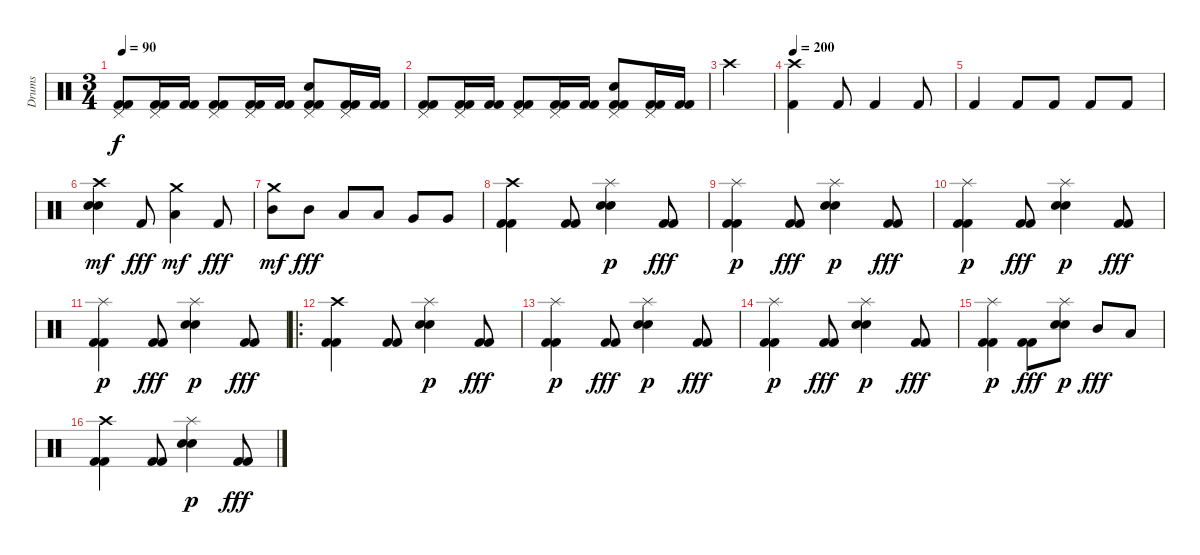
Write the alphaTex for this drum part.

\track ("Drums" "Drums") {instrument percussion bank 41}
\staff
\articulation defaults
\ts (3 4)
\tempo 90
\clef neutral
\ks c
("Kick (hit) 2" "Kick (hit) 2" "Pedal Hi-Hat (hit)").8{dy f} ("Kick (hit) 2" "Kick (hit) 2" "Pedal Hi-Hat (hit)").16 ("Kick (hit) 2" "Kick (hit) 2").16 ("Kick (hit) 2" "Kick (hit) 2" "Pedal Hi-Hat (hit)").8 ("Kick (hit) 2" "Kick (hit) 2" "Pedal Hi-Hat (hit)").16 ("Kick (hit) 2" "Kick (hit) 2").16 ("Kick (hit) 2" "Kick (hit) 2" "Snare (hit) 2" "Pedal Hi-Hat (hit)").8 ("Kick (hit) 2" "Kick (hit) 2" "Pedal Hi-Hat (hit)").16 ("Kick (hit) 2" "Kick (hit) 2").16 |
("Kick (hit) 2" "Kick (hit) 2" "Pedal Hi-Hat (hit)").8 ("Kick (hit) 2" "Kick (hit) 2" "Pedal Hi-Hat (hit)").16 ("Kick (hit) 2" "Kick (hit) 2").16 ("Kick (hit) 2" "Kick (hit) 2" "Pedal Hi-Hat (hit)").8 ("Kick (hit) 2" "Kick (hit) 2" "Pedal Hi-Hat (hit)").16 ("Kick (hit) 2" "Kick (hit) 2").16 ("Kick (hit) 2" "Kick (hit) 2" "Snare (hit) 2" "Pedal Hi-Hat (hit)").8 ("Kick (hit) 2" "Kick (hit) 2" "Pedal Hi-Hat (hit)").16 ("Kick (hit) 2" "Kick (hit) 2").16 |
"Crash high (hit)".4 |
\tempo 200
("Kick (hit) 2" "Crash high (hit)").4 "Kick (hit) 2".8 "Kick (hit) 2".4 "Kick (hit) 2".8 |
"Kick (hit) 2".4 "Kick (hit) 2".8 "Kick (hit) 2".8 "Kick (hit) 2".8 "Kick (hit) 2".8 |
("Snare (hit) 2" "Electric Snare (hit)" "Crash high (hit)").4{dy mf} "Kick (hit) 2".8{dy fff} ("Low Tom (hit)" "Crash medium (hit)").4{dy mf} "Kick (hit) 2".8{dy fff} |
("Mid Tom (hit)" "Crash medium (hit)").8{dy mf} "Mid Tom (hit)".8{dy fff} "Low Tom (hit)".8 "Low Tom (hit)".8 "Very Low Tom (hit)".8 "Very Low Tom (hit)".8 |
("Kick (hit) 2" "Kick (hit) 2" "Crash high (hit)").4 ("Kick (hit) 2" "Kick (hit) 2").8 ("Snare (hit) 2" "Electric Snare (hit)" "Splash (hit)").4{dy p} ("Kick (hit) 2" "Kick (hit) 2").8{dy fff} |
("Kick (hit) 2" "Kick (hit) 2" "Splash (hit)").4{dy p} ("Kick (hit) 2" "Kick (hit) 2").8{dy fff} ("Snare (hit) 2" "Electric Snare (hit)" "Splash (hit)").4{dy p} ("Kick (hit) 2" "Kick (hit) 2").8{dy fff} |
("Kick (hit) 2" "Kick (hit) 2" "Splash (hit)").4{dy p} ("Kick (hit) 2" "Kick (hit) 2").8{dy fff} ("Snare (hit) 2" "Electric Snare (hit)" "Splash (hit)").4{dy p} ("Kick (hit) 2" "Kick (hit) 2").8{dy fff} |
("Kick (hit) 2" "Kick (hit) 2" "Splash (hit)").4{dy p} ("Kick (hit) 2" "Kick (hit) 2").8{dy fff} ("Snare (hit) 2" "Electric Snare (hit)" "Splash (hit)").4{dy p} ("Kick (hit) 2" "Kick (hit) 2").8{dy fff} |
\ro
("Kick (hit) 2" "Kick (hit) 2" "Crash high (hit)").4 ("Kick (hit) 2" "Kick (hit) 2").8 ("Snare (hit) 2" "Electric Snare (hit)" "Splash (hit)").4{dy p} ("Kick (hit) 2" "Kick (hit) 2").8{dy fff} |
("Kick (hit) 2" "Kick (hit) 2" "Splash (hit)").4{dy p} ("Kick (hit) 2" "Kick (hit) 2").8{dy fff} ("Snare (hit) 2" "Electric Snare (hit)" "Splash (hit)").4{dy p} ("Kick (hit) 2" "Kick (hit) 2").8{dy fff} |
("Kick (hit) 2" "Kick (hit) 2" "Splash (hit)").4{dy p} ("Kick (hit) 2" "Kick (hit) 2").8{dy fff} ("Snare (hit) 2" "Electric Snare (hit)" "Splash (hit)").4{dy p} ("Kick (hit) 2" "Kick (hit) 2").8{dy fff} |
("Kick (hit) 2" "Kick (hit) 2" "Splash (hit)").4{dy p} ("Kick (hit) 2" "Kick (hit) 2").8{dy fff} ("Snare (hit) 2" "Electric Snare (hit)" "Splash (hit)").8{dy p} "Mid Tom (hit)".8{dy fff} "Low Tom (hit)".8 |
("Kick (hit) 2" "Kick (hit) 2" "Crash high (hit)").4 ("Kick (hit) 2" "Kick (hit) 2").8 ("Snare (hit) 2" "Electric Snare (hit)" "Splash (hit)").4{dy p} ("Kick (hit) 2" "Kick (hit) 2").8{dy fff}
